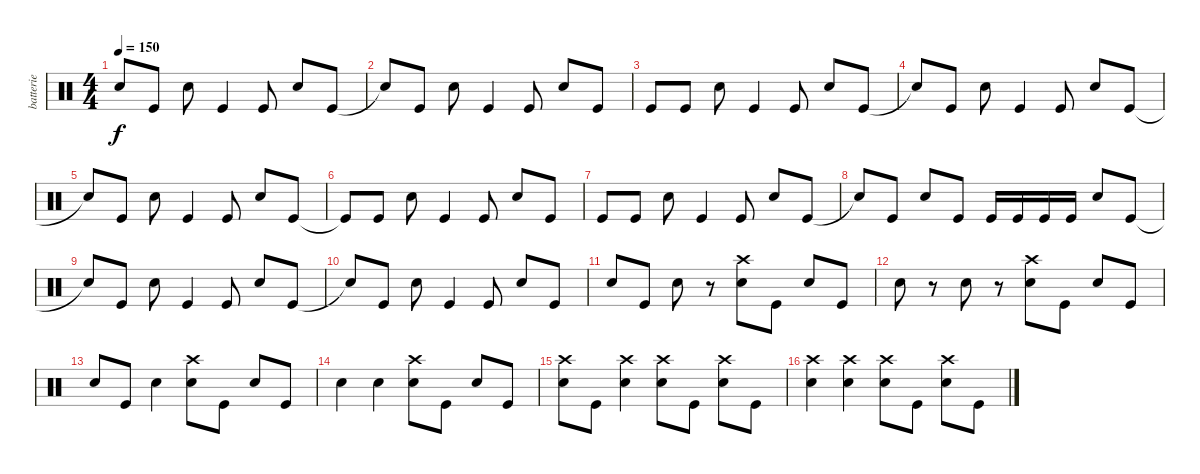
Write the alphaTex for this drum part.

\track ("batterie" "batterie") {instrument percussion}
\staff {score}
\articulation defaults
\ts (4 4)
\tempo 150
\clef neutral
\ks c "Snare (hit)"{t}.8{dy f} "Kick (hit)".8 "Snare (hit) 2".8 "Kick (hit)".4 "Kick (hit)".8 "Snare (hit) 2".8 "Kick (hit)".8
|
"Snare (hit)"{t}.8 "Kick (hit)".8 "Snare (hit) 2".8 "Kick (hit)".4 "Kick (hit)".8 "Snare (hit) 2".8 "Kick (hit)".8 |
"Kick (hit)".8 "Kick (hit)".8 "Snare (hit) 2".8 "Kick (hit)".4 "Kick (hit)".8 "Snare (hit) 2".8 "Kick (hit)".8 |
"Snare (hit)"{t}.8 "Kick (hit)".8 "Snare (hit) 2".8 "Kick (hit)".4 "Kick (hit)".8 "Snare (hit) 2".8 "Kick (hit)".8 |
"Snare (hit)"{t}.8 "Kick (hit)".8 "Snare (hit) 2".8 "Kick (hit)".4 "Kick (hit)".8 "Snare (hit) 2".8 "Kick (hit)".8 |
"Kick (hit)"{t}.8 "Kick (hit)".8 "Snare (hit) 2".8 "Kick (hit)".4 "Kick (hit)".8 "Snare (hit) 2".8 "Kick (hit)".8 |
"Kick (hit)".8 "Kick (hit)".8 "Snare (hit) 2".8 "Kick (hit)".4 "Kick (hit)".8 "Snare (hit) 2".8 "Kick (hit)".8 |
"Snare (hit)"{t}.8 "Kick (hit)".8 "Snare (hit) 2".8 "Kick (hit)".8 "Kick (hit)".16 "Kick (hit)".16 "Kick (hit)".16 "Kick (hit)".16 "Snare (hit) 2".8 "Kick (hit)".8 |
"Snare (hit)"{t}.8 "Kick (hit)".8 "Snare (hit) 2".8 "Kick (hit)".4 "Kick (hit)".8 "Snare (hit) 2".8 "Kick (hit)".8 |
"Snare (hit)"{t}.8 "Kick (hit)".8 "Snare (hit) 2".8 "Kick (hit)".4 "Kick (hit)".8 "Snare (hit) 2".8 "Kick (hit)".8 |
"Snare (hit) 2".8 "Kick (hit)".8 "Snare (hit) 2".8 r.8 ("Crash high (hit)" "Snare (hit) 2").8 "Kick (hit)".8 "Snare (hit) 2".8 "Kick (hit)".8 |
"Snare (hit) 2".8 r.8 "Snare (hit) 2".8 r.8 ("Crash high (hit)" "Snare (hit) 2").8 "Kick (hit)".8 "Snare (hit) 2".8 "Kick (hit)".8 |
"Snare (hit) 2".8 "Kick (hit)".8 "Snare (hit) 2".4 ("Crash high (hit)" "Snare (hit) 2").8 "Kick (hit)".8 "Snare (hit) 2".8 "Kick (hit)".8 |
"Snare (hit) 2".4 "Snare (hit) 2".4 ("Crash high (hit)" "Snare (hit) 2").8 "Kick (hit)".8 "Snare (hit) 2".8 "Kick (hit)".8 |
("Crash high (hit)" "Snare (hit) 2").8 "Kick (hit)".8 ("Crash high (hit)" "Snare (hit) 2").4 ("Crash high (hit)" "Snare (hit) 2").8 "Kick (hit)".8 ("Crash high (hit)" "Snare (hit) 2").8 "Kick (hit)".8 |
("Crash high (hit)" "Snare (hit) 2").4 ("Crash high (hit)" "Snare (hit) 2").4 ("Crash high (hit)" "Snare (hit) 2").8 "Kick (hit)".8 ("Crash high (hit)" "Snare (hit) 2").8 "Kick (hit)".8
